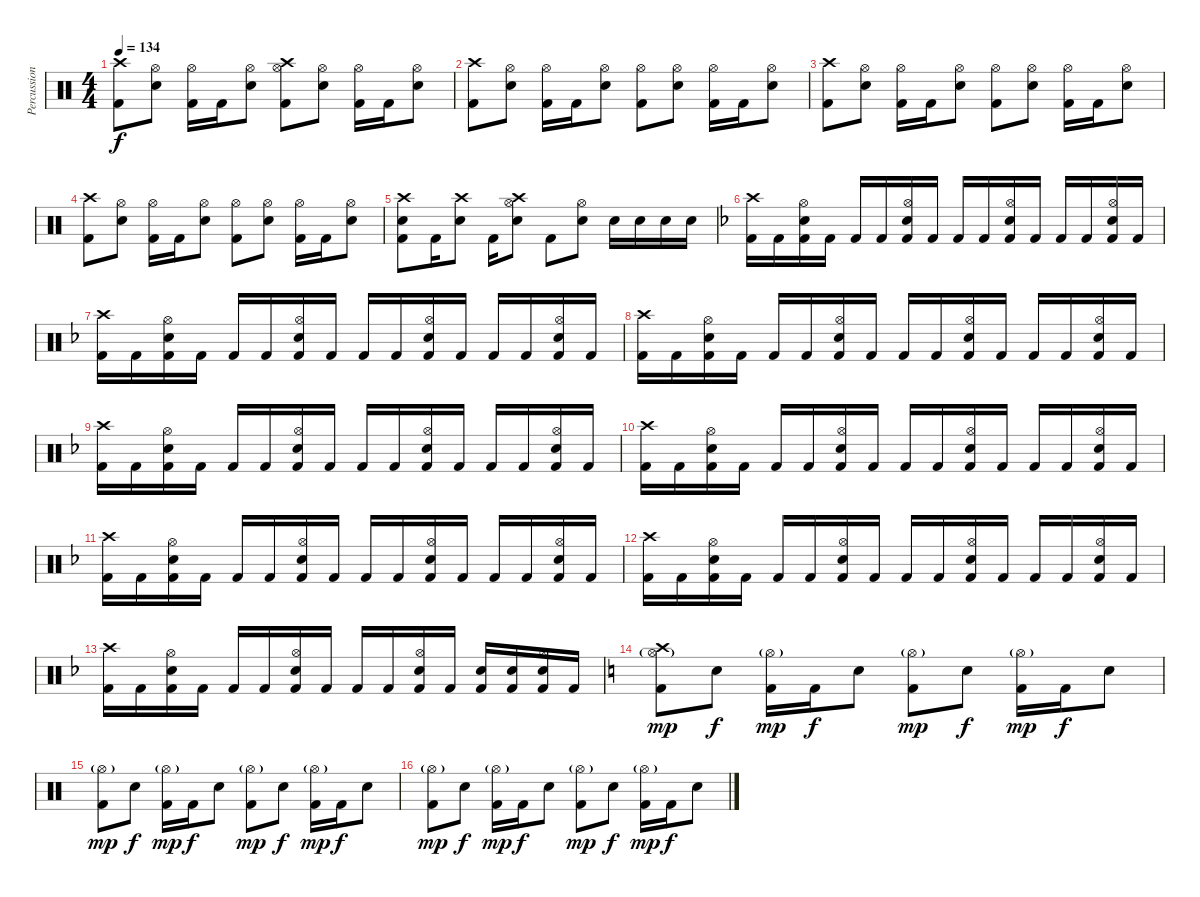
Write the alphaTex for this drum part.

\track ("Percussion" "Percussion") {instrument percussion}
\staff {score}
\articulation defaults
\ts (4 4)
\tempo 134
\clef neutral
\ks aminor
("Crash high (hit)" "Kick (hit) 2").8{dy f} ("Hi-Hat (open)" "Electric Snare (hit)").8 ("Hi-Hat (open)" "Kick (hit) 2").16 "Kick (hit) 2".16 ("Hi-Hat (open)" "Electric Snare (hit)").8 ("Crash high (hit)" "Hi-Hat (open)" "Kick (hit) 2").8 ("Hi-Hat (open)" "Electric Snare (hit)").8 ("Hi-Hat (open)" "Kick (hit) 2").16 "Kick (hit) 2".16 ("Hi-Hat (open)" "Electric Snare (hit)").8 |
("Crash high (hit)" "Kick (hit) 2").8 ("Hi-Hat (open)" "Electric Snare (hit)").8 ("Hi-Hat (open)" "Kick (hit) 2").16 "Kick (hit) 2".16 ("Hi-Hat (open)" "Electric Snare (hit)").8 ("Hi-Hat (open)" "Kick (hit) 2").8 ("Hi-Hat (open)" "Electric Snare (hit)").8 ("Hi-Hat (open)" "Kick (hit) 2").16 "Kick (hit) 2".16 ("Hi-Hat (open)" "Electric Snare (hit)").8 |
("Crash high (hit)" "Kick (hit) 2").8 ("Hi-Hat (open)" "Electric Snare (hit)").8 ("Hi-Hat (open)" "Kick (hit) 2").16 "Kick (hit) 2".16 ("Hi-Hat (open)" "Electric Snare (hit)").8 ("Hi-Hat (open)" "Kick (hit) 2").8 ("Hi-Hat (open)" "Electric Snare (hit)").8 ("Hi-Hat (open)" "Kick (hit) 2").16 "Kick (hit) 2".16 ("Hi-Hat (open)" "Electric Snare (hit)").8 |
("Crash high (hit)" "Kick (hit) 2").8 ("Hi-Hat (open)" "Electric Snare (hit)").8 ("Hi-Hat (open)" "Kick (hit) 2").16 "Kick (hit) 2".16 ("Hi-Hat (open)" "Electric Snare (hit)").8 ("Hi-Hat (open)" "Kick (hit) 2").8 ("Hi-Hat (open)" "Electric Snare (hit)").8 ("Hi-Hat (open)" "Kick (hit) 2").16 "Kick (hit) 2".16 ("Hi-Hat (open)" "Electric Snare (hit)").8 |
("Crash high (hit)" "Electric Snare (hit)" "Kick (hit) 2").8 "Kick (hit) 2".16 ("Crash high (hit)" "Electric Snare (hit)").8 "Kick (hit) 2".16 ("Crash high (hit)" "Hi-Hat (open)" "Electric Snare (hit)").8 "Kick (hit) 2".8 ("Hi-Hat (open)" "Electric Snare (hit)").8 "Electric Snare (hit)".16 "Electric Snare (hit)".16 "Electric Snare (hit)".16 "Electric Snare (hit)".16 |
\ks dminor
("Crash high (hit)" "Kick (hit) 2").16 "Kick (hit) 2".16 ("Hi-Hat (open)" "Electric Snare (hit)" "Kick (hit) 2").16 "Kick (hit) 2".16 "Kick (hit) 2".16 "Kick (hit) 2".16 ("Hi-Hat (open)" "Electric Snare (hit)" "Kick (hit) 2").16 "Kick (hit) 2".16 "Kick (hit) 2".16 "Kick (hit) 2".16 ("Hi-Hat (open)" "Electric Snare (hit)" "Kick (hit) 2").16 "Kick (hit) 2".16 "Kick (hit) 2".16 "Kick (hit) 2".16 ("Hi-Hat (open)" "Electric Snare (hit)" "Kick (hit) 2").16 "Kick (hit) 2".16 |
("Crash high (hit)" "Kick (hit) 2").16 "Kick (hit) 2".16 ("Hi-Hat (open)" "Electric Snare (hit)" "Kick (hit) 2").16 "Kick (hit) 2".16 "Kick (hit) 2".16 "Kick (hit) 2".16 ("Hi-Hat (open)" "Electric Snare (hit)" "Kick (hit) 2").16 "Kick (hit) 2".16 "Kick (hit) 2".16 "Kick (hit) 2".16 ("Hi-Hat (open)" "Electric Snare (hit)" "Kick (hit) 2").16 "Kick (hit) 2".16 "Kick (hit) 2".16 "Kick (hit) 2".16 ("Hi-Hat (open)" "Electric Snare (hit)" "Kick (hit) 2").16 "Kick (hit) 2".16 |
("Crash high (hit)" "Kick (hit) 2").16 "Kick (hit) 2".16 ("Hi-Hat (open)" "Electric Snare (hit)" "Kick (hit) 2").16 "Kick (hit) 2".16 "Kick (hit) 2".16 "Kick (hit) 2".16 ("Hi-Hat (open)" "Electric Snare (hit)" "Kick (hit) 2").16 "Kick (hit) 2".16 "Kick (hit) 2".16 "Kick (hit) 2".16 ("Hi-Hat (open)" "Electric Snare (hit)" "Kick (hit) 2").16 "Kick (hit) 2".16 "Kick (hit) 2".16 "Kick (hit) 2".16 ("Hi-Hat (open)" "Electric Snare (hit)" "Kick (hit) 2").16 "Kick (hit) 2".16 |
("Crash high (hit)" "Kick (hit) 2").16 "Kick (hit) 2".16 ("Hi-Hat (open)" "Electric Snare (hit)" "Kick (hit) 2").16 "Kick (hit) 2".16 "Kick (hit) 2".16 "Kick (hit) 2".16 ("Hi-Hat (open)" "Electric Snare (hit)" "Kick (hit) 2").16 "Kick (hit) 2".16 "Kick (hit) 2".16 "Kick (hit) 2".16 ("Hi-Hat (open)" "Electric Snare (hit)" "Kick (hit) 2").16 "Kick (hit) 2".16 "Kick (hit) 2".16 "Kick (hit) 2".16 ("Hi-Hat (open)" "Electric Snare (hit)" "Kick (hit) 2").16 "Kick (hit) 2".16 |
("Crash high (hit)" "Kick (hit) 2").16 "Kick (hit) 2".16 ("Hi-Hat (open)" "Electric Snare (hit)" "Kick (hit) 2").16 "Kick (hit) 2".16 "Kick (hit) 2".16 "Kick (hit) 2".16 ("Hi-Hat (open)" "Electric Snare (hit)" "Kick (hit) 2").16 "Kick (hit) 2".16 "Kick (hit) 2".16 "Kick (hit) 2".16 ("Hi-Hat (open)" "Electric Snare (hit)" "Kick (hit) 2").16 "Kick (hit) 2".16 "Kick (hit) 2".16 "Kick (hit) 2".16 ("Hi-Hat (open)" "Electric Snare (hit)" "Kick (hit) 2").16 "Kick (hit) 2".16 |
("Crash high (hit)" "Kick (hit) 2").16 "Kick (hit) 2".16 ("Hi-Hat (open)" "Electric Snare (hit)" "Kick (hit) 2").16 "Kick (hit) 2".16 "Kick (hit) 2".16 "Kick (hit) 2".16 ("Hi-Hat (open)" "Electric Snare (hit)" "Kick (hit) 2").16 "Kick (hit) 2".16 "Kick (hit) 2".16 "Kick (hit) 2".16 ("Hi-Hat (open)" "Electric Snare (hit)" "Kick (hit) 2").16 "Kick (hit) 2".16 "Kick (hit) 2".16 "Kick (hit) 2".16 ("Hi-Hat (open)" "Electric Snare (hit)" "Kick (hit) 2").16 "Kick (hit) 2".16 |
("Crash high (hit)" "Kick (hit) 2").16 "Kick (hit) 2".16 ("Hi-Hat (open)" "Electric Snare (hit)" "Kick (hit) 2").16 "Kick (hit) 2".16 "Kick (hit) 2".16 "Kick (hit) 2".16 ("Hi-Hat (open)" "Electric Snare (hit)" "Kick (hit) 2").16 "Kick (hit) 2".16 "Kick (hit) 2".16 "Kick (hit) 2".16 ("Hi-Hat (open)" "Electric Snare (hit)" "Kick (hit) 2").16 "Kick (hit) 2".16 "Kick (hit) 2".16 "Kick (hit) 2".16 ("Hi-Hat (open)" "Electric Snare (hit)" "Kick (hit) 2").16 "Kick (hit) 2".16 |
("Crash high (hit)" "Kick (hit) 2").16 "Kick (hit) 2".16 ("Hi-Hat (open)" "Electric Snare (hit)" "Kick (hit) 2").16 "Kick (hit) 2".16 "Kick (hit) 2".16 "Kick (hit) 2".16 ("Hi-Hat (open)" "Electric Snare (hit)" "Kick (hit) 2").16 "Kick (hit) 2".16 "Kick (hit) 2".16 "Kick (hit) 2".16 ("Hi-Hat (open)" "Electric Snare (hit)" "Kick (hit) 2").16 "Kick (hit) 2".16 ("Electric Snare (hit)" "Kick (hit) 2").16 ("Electric Snare (hit)" "Kick (hit) 2").16 ("Hi-Hat (open)" "Electric Snare (hit)" "Kick (hit) 2").16 "Kick (hit) 2".16 |
\ks aminor
("Crash high (hit)" "Hi-Hat (open)"{g} "Kick (hit) 2").8{dy mp} "Electric Snare (hit)".8{dy f} ("Hi-Hat (open)"{g} "Kick (hit) 2").16{dy mp} "Kick (hit) 2".16{dy f} "Electric Snare (hit)".8 ("Hi-Hat (open)"{g} "Kick (hit) 2").8{dy mp} "Electric Snare (hit)".8{dy f} ("Hi-Hat (open)"{g} "Kick (hit) 2").16{dy mp} "Kick (hit) 2".16{dy f} "Electric Snare (hit)".8 |
("Hi-Hat (open)"{g} "Kick (hit) 2").8{dy mp} "Electric Snare (hit)".8{dy f} ("Hi-Hat (open)"{g} "Kick (hit) 2").16{dy mp} "Kick (hit) 2".16{dy f} "Electric Snare (hit)".8 ("Hi-Hat (open)"{g} "Kick (hit) 2").8{dy mp} "Electric Snare (hit)".8{dy f} ("Hi-Hat (open)"{g} "Kick (hit) 2").16{dy mp} "Kick (hit) 2".16{dy f} "Electric Snare (hit)".8 |
("Hi-Hat (open)"{g} "Kick (hit) 2").8{dy mp} "Electric Snare (hit)".8{dy f} ("Hi-Hat (open)"{g} "Kick (hit) 2").16{dy mp} "Kick (hit) 2".16{dy f} "Electric Snare (hit)".8 ("Hi-Hat (open)"{g} "Kick (hit) 2").8{dy mp} "Electric Snare (hit)".8{dy f} ("Hi-Hat (open)"{g} "Kick (hit) 2").16{dy mp} "Kick (hit) 2".16{dy f} "Electric Snare (hit)".8
